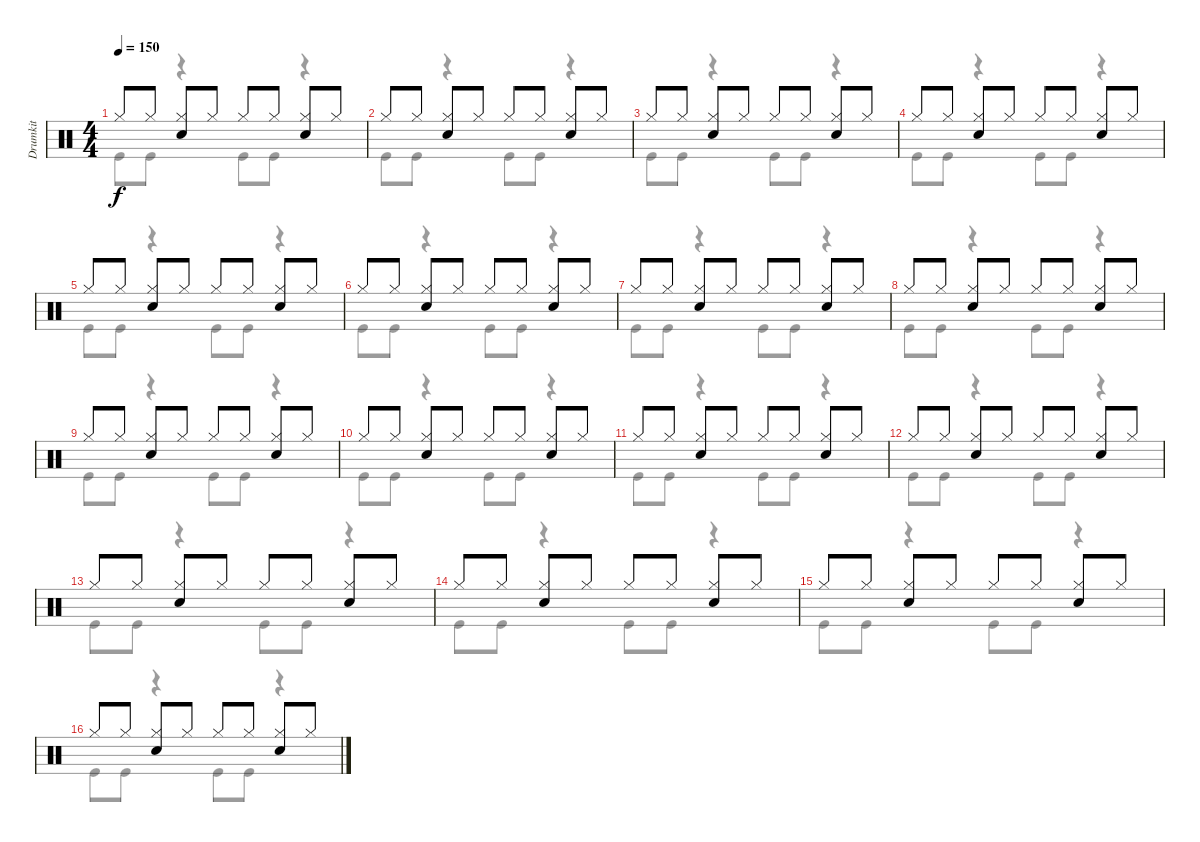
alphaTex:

\track ("Drumkit" "Drumkit") {instrument percussion}
\staff {score}
\articulation defaults
\voice
\ts (4 4)
\tempo 150
\clef neutral
\ks c "Hi-Hat (closed)".8{dy f} "Hi-Hat (closed)".8
("Hi-Hat (closed)" "Snare (hit) 2").8 "Hi-Hat (closed)".8 "Hi-Hat (closed)".8 "Hi-Hat (closed)".8 ("Hi-Hat (closed)" "Snare (hit) 2").8 "Hi-Hat (closed)".8 |
"Hi-Hat (closed)".8 "Hi-Hat (closed)".8 ("Hi-Hat (closed)" "Snare (hit) 2").8 "Hi-Hat (closed)".8 "Hi-Hat (closed)".8 "Hi-Hat (closed)".8 ("Hi-Hat (closed)" "Snare (hit) 2").8 "Hi-Hat (closed)".8 |
"Hi-Hat (closed)".8 "Hi-Hat (closed)".8 ("Hi-Hat (closed)" "Snare (hit) 2").8 "Hi-Hat (closed)".8 "Hi-Hat (closed)".8 "Hi-Hat (closed)".8 ("Hi-Hat (closed)" "Snare (hit) 2").8 "Hi-Hat (closed)".8 |
"Hi-Hat (closed)".8 "Hi-Hat (closed)".8 ("Hi-Hat (closed)" "Snare (hit) 2").8 "Hi-Hat (closed)".8 "Hi-Hat (closed)".8 "Hi-Hat (closed)".8 ("Hi-Hat (closed)" "Snare (hit) 2").8 "Hi-Hat (closed)".8 |
"Hi-Hat (closed)".8 "Hi-Hat (closed)".8 ("Hi-Hat (closed)" "Snare (hit) 2").8 "Hi-Hat (closed)".8 "Hi-Hat (closed)".8 "Hi-Hat (closed)".8 ("Hi-Hat (closed)" "Snare (hit) 2").8 "Hi-Hat (closed)".8 |
"Hi-Hat (closed)".8 "Hi-Hat (closed)".8 ("Hi-Hat (closed)" "Snare (hit) 2").8 "Hi-Hat (closed)".8 "Hi-Hat (closed)".8 "Hi-Hat (closed)".8 ("Hi-Hat (closed)" "Snare (hit) 2").8 "Hi-Hat (closed)".8 |
"Hi-Hat (closed)".8 "Hi-Hat (closed)".8 ("Hi-Hat (closed)" "Snare (hit) 2").8 "Hi-Hat (closed)".8 "Hi-Hat (closed)".8 "Hi-Hat (closed)".8 ("Hi-Hat (closed)" "Snare (hit) 2").8 "Hi-Hat (closed)".8 |
"Hi-Hat (closed)".8 "Hi-Hat (closed)".8 ("Hi-Hat (closed)" "Snare (hit) 2").8 "Hi-Hat (closed)".8 "Hi-Hat (closed)".8 "Hi-Hat (closed)".8 ("Hi-Hat (closed)" "Snare (hit) 2").8 "Hi-Hat (closed)".8 |
"Hi-Hat (closed)".8 "Hi-Hat (closed)".8 ("Hi-Hat (closed)" "Snare (hit) 2").8 "Hi-Hat (closed)".8 "Hi-Hat (closed)".8 "Hi-Hat (closed)".8 ("Hi-Hat (closed)" "Snare (hit) 2").8 "Hi-Hat (closed)".8 |
"Hi-Hat (closed)".8 "Hi-Hat (closed)".8 ("Hi-Hat (closed)" "Snare (hit) 2").8 "Hi-Hat (closed)".8 "Hi-Hat (closed)".8 "Hi-Hat (closed)".8 ("Hi-Hat (closed)" "Snare (hit) 2").8 "Hi-Hat (closed)".8 |
"Hi-Hat (closed)".8 "Hi-Hat (closed)".8 ("Hi-Hat (closed)" "Snare (hit) 2").8 "Hi-Hat (closed)".8 "Hi-Hat (closed)".8 "Hi-Hat (closed)".8 ("Hi-Hat (closed)" "Snare (hit) 2").8 "Hi-Hat (closed)".8 |
"Hi-Hat (closed)".8 "Hi-Hat (closed)".8 ("Hi-Hat (closed)" "Snare (hit) 2").8 "Hi-Hat (closed)".8 "Hi-Hat (closed)".8 "Hi-Hat (closed)".8 ("Hi-Hat (closed)" "Snare (hit) 2").8 "Hi-Hat (closed)".8 |
"Hi-Hat (closed)".8 "Hi-Hat (closed)".8 ("Hi-Hat (closed)" "Snare (hit) 2").8 "Hi-Hat (closed)".8 "Hi-Hat (closed)".8 "Hi-Hat (closed)".8 ("Hi-Hat (closed)" "Snare (hit) 2").8 "Hi-Hat (closed)".8 |
"Hi-Hat (closed)".8 "Hi-Hat (closed)".8 ("Hi-Hat (closed)" "Snare (hit) 2").8 "Hi-Hat (closed)".8 "Hi-Hat (closed)".8 "Hi-Hat (closed)".8 ("Hi-Hat (closed)" "Snare (hit) 2").8 "Hi-Hat (closed)".8 |
"Hi-Hat (closed)".8 "Hi-Hat (closed)".8 ("Hi-Hat (closed)" "Snare (hit) 2").8 "Hi-Hat (closed)".8 "Hi-Hat (closed)".8 "Hi-Hat (closed)".8 ("Hi-Hat (closed)" "Snare (hit) 2").8 "Hi-Hat (closed)".8 |
"Hi-Hat (closed)".8 "Hi-Hat (closed)".8 ("Hi-Hat (closed)" "Snare (hit) 2").8 "Hi-Hat (closed)".8 "Hi-Hat (closed)".8 "Hi-Hat (closed)".8 ("Hi-Hat (closed)" "Snare (hit) 2").8 "Hi-Hat (closed)".8
\voice
\clef neutral
\ottava regular
\simile none
\ks c "Kick (hit)".8{dy f} "Kick (hit)".8
r.4 "Kick (hit)".8 "Kick (hit)".8 r.4 |
"Kick (hit)".8 "Kick (hit)".8 r.4 "Kick (hit)".8 "Kick (hit)".8 r.4 |
"Kick (hit)".8 "Kick (hit)".8 r.4 "Kick (hit)".8 "Kick (hit)".8 r.4 |
"Kick (hit)".8 "Kick (hit)".8 r.4 "Kick (hit)".8 "Kick (hit)".8 r.4 |
"Kick (hit)".8 "Kick (hit)".8 r.4 "Kick (hit)".8 "Kick (hit)".8 r.4 |
"Kick (hit)".8 "Kick (hit)".8 r.4 "Kick (hit)".8 "Kick (hit)".8 r.4 |
"Kick (hit)".8 "Kick (hit)".8 r.4 "Kick (hit)".8 "Kick (hit)".8 r.4 |
"Kick (hit)".8 "Kick (hit)".8 r.4 "Kick (hit)".8 "Kick (hit)".8 r.4 |
"Kick (hit)".8 "Kick (hit)".8 r.4 "Kick (hit)".8 "Kick (hit)".8 r.4 |
"Kick (hit)".8 "Kick (hit)".8 r.4 "Kick (hit)".8 "Kick (hit)".8 r.4 |
"Kick (hit)".8 "Kick (hit)".8 r.4 "Kick (hit)".8 "Kick (hit)".8 r.4 |
"Kick (hit)".8 "Kick (hit)".8 r.4 "Kick (hit)".8 "Kick (hit)".8 r.4 |
"Kick (hit)".8 "Kick (hit)".8 r.4 "Kick (hit)".8 "Kick (hit)".8 r.4 |
"Kick (hit)".8 "Kick (hit)".8 r.4 "Kick (hit)".8 "Kick (hit)".8 r.4 |
"Kick (hit)".8 "Kick (hit)".8 r.4 "Kick (hit)".8 "Kick (hit)".8 r.4 |
"Kick (hit)".8 "Kick (hit)".8 r.4 "Kick (hit)".8 "Kick (hit)".8 r.4
